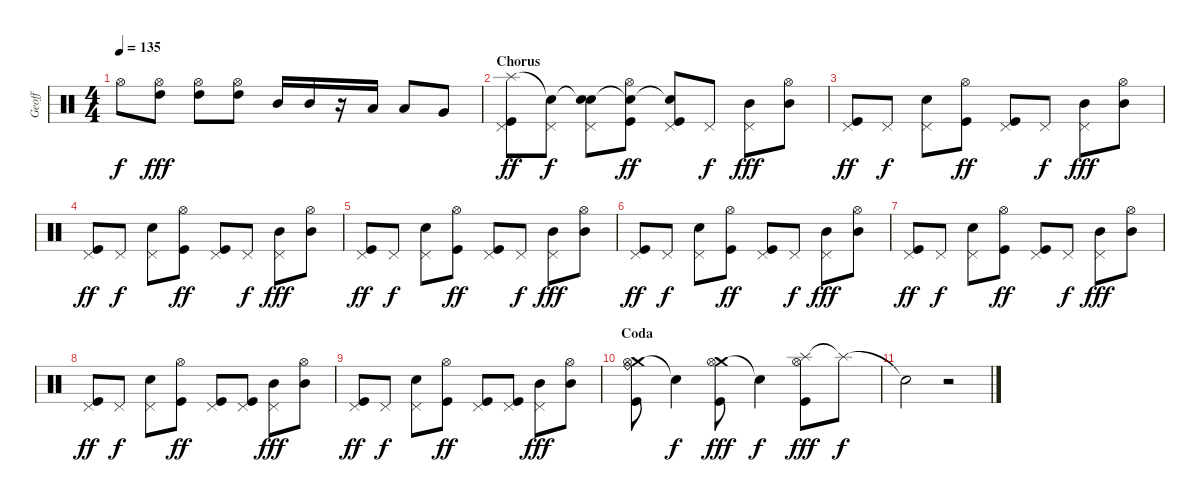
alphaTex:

\track ("Geoff" "Geoff") {instrument percussion}
\staff {score}
\articulation defaults
\ts (4 4)
\tempo 135
\clef neutral
\ks c "Hi-Hat (open)".8{dy f}
("Hi-Hat (open)" "High Tom (hit)").8{dy fff} ("Hi-Hat (open)" "High Tom (hit)").8 ("Hi-Hat (open)" "High Tom (hit)").8 "Mid Tom (hit)".16 "Mid Tom (hit)".16 r.16 "Low Tom (hit)".16 "Low Tom (hit)".8 "Very Low Tom (hit)".8 |
\section ("" "Chorus")
("Splash (hit)" "Pedal Hi-Hat (hit)" "Kick (hit)").8{dy ff} ("Snare (hit)"{t} "Pedal Hi-Hat (hit)").8{dy f} ("Snare (hit)"{t} "Pedal Hi-Hat (hit)" "Electric Snare (hit)").8 ("Snare (hit)"{t} "Hi-Hat (open)" "Kick (hit)").8{dy ff} ("Snare (hit)"{t} "Pedal Hi-Hat (hit)" "Kick (hit)").8 "Pedal Hi-Hat (hit)".8{dy f} ("Pedal Hi-Hat (hit)" "Mid Tom (hit)").8{dy fff} ("Hi-Hat (open)" "Mid Tom (hit)").8 |
("Pedal Hi-Hat (hit)" "Kick (hit)").8{dy ff} "Pedal Hi-Hat (hit)".8{dy f} ("Pedal Hi-Hat (hit)" "Electric Snare (hit)").8 ("Hi-Hat (open)" "Kick (hit)").8{dy ff} ("Pedal Hi-Hat (hit)" "Kick (hit)").8 "Pedal Hi-Hat (hit)".8{dy f} ("Pedal Hi-Hat (hit)" "Mid Tom (hit)").8{dy fff} ("Hi-Hat (open)" "Mid Tom (hit)").8 |
("Pedal Hi-Hat (hit)" "Kick (hit)").8{dy ff} "Pedal Hi-Hat (hit)".8{dy f} ("Pedal Hi-Hat (hit)" "Electric Snare (hit)").8 ("Hi-Hat (open)" "Kick (hit)").8{dy ff} ("Pedal Hi-Hat (hit)" "Kick (hit)").8 "Pedal Hi-Hat (hit)".8{dy f} ("Pedal Hi-Hat (hit)" "Mid Tom (hit)").8{dy fff} ("Hi-Hat (open)" "Mid Tom (hit)").8 |
("Pedal Hi-Hat (hit)" "Kick (hit)").8{dy ff} "Pedal Hi-Hat (hit)".8{dy f} ("Pedal Hi-Hat (hit)" "Electric Snare (hit)").8 ("Hi-Hat (open)" "Kick (hit)").8{dy ff} ("Pedal Hi-Hat (hit)" "Kick (hit)").8 "Pedal Hi-Hat (hit)".8{dy f} ("Pedal Hi-Hat (hit)" "Mid Tom (hit)").8{dy fff} ("Hi-Hat (open)" "Mid Tom (hit)").8 |
("Pedal Hi-Hat (hit)" "Kick (hit)").8{dy ff} "Pedal Hi-Hat (hit)".8{dy f} ("Pedal Hi-Hat (hit)" "Electric Snare (hit)").8 ("Hi-Hat (open)" "Kick (hit)").8{dy ff} ("Pedal Hi-Hat (hit)" "Kick (hit)").8 "Pedal Hi-Hat (hit)".8{dy f} ("Pedal Hi-Hat (hit)" "Mid Tom (hit)").8{dy fff} ("Hi-Hat (open)" "Mid Tom (hit)").8 |
("Pedal Hi-Hat (hit)" "Kick (hit)").8{dy ff} "Pedal Hi-Hat (hit)".8{dy f} ("Pedal Hi-Hat (hit)" "Electric Snare (hit)").8 ("Hi-Hat (open)" "Kick (hit)").8{dy ff} ("Pedal Hi-Hat (hit)" "Kick (hit)").8 "Pedal Hi-Hat (hit)".8{dy f} ("Pedal Hi-Hat (hit)" "Mid Tom (hit)").8{dy fff} ("Hi-Hat (open)" "Mid Tom (hit)").8 |
("Pedal Hi-Hat (hit)" "Kick (hit)").8{dy ff} "Pedal Hi-Hat (hit)".8{dy f} ("Pedal Hi-Hat (hit)" "Electric Snare (hit)").8 ("Hi-Hat (open)" "Kick (hit)").8{dy ff} ("Pedal Hi-Hat (hit)" "Kick (hit)").8 ("Pedal Hi-Hat (hit)" "Kick (hit)").8 ("Pedal Hi-Hat (hit)" "Mid Tom (hit)").8{dy fff} ("Hi-Hat (open)" "Mid Tom (hit)").8 |
("Pedal Hi-Hat (hit)" "Kick (hit)").8{dy ff} "Pedal Hi-Hat (hit)".8{dy f} ("Pedal Hi-Hat (hit)" "Electric Snare (hit)").8 ("Hi-Hat (open)" "Kick (hit)").8{dy ff} ("Pedal Hi-Hat (hit)" "Kick (hit)").8 ("Pedal Hi-Hat (hit)" "Kick (hit)").8 ("Pedal Hi-Hat (hit)" "Mid Tom (hit)").8{dy fff} ("Hi-Hat (open)" "Mid Tom (hit)").8 |
\section ("" "Coda")
("Crash medium (hit)" "Ride (bell)" "Hi-Hat (open)" "Kick (hit)").8 "Snare (hit)"{t}.4{dy f} ("Crash medium (hit)" "Hi-Hat (open)" "Kick (hit)").8{dy fff} "Snare (hit)"{t}.4{dy f} ("Splash (hit)" "Hi-Hat (open)" "Kick (hit)").8{dy fff} "Splash (hit)"{t}.8{dy f} |
"Snare (hit)"{t}.2 r.2
